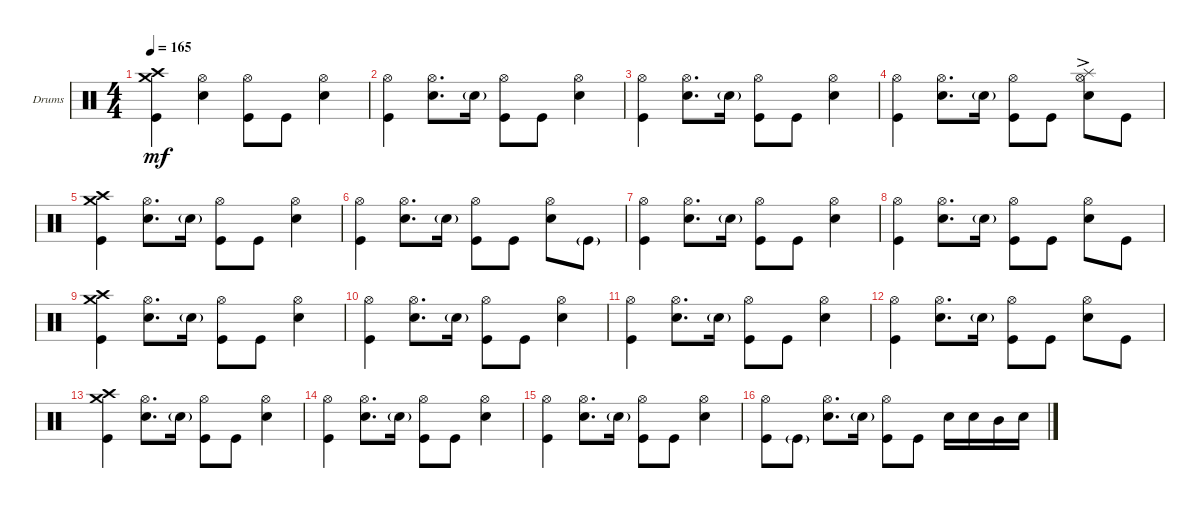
\defaultSystemsLayout 4
\bracketExtendMode groupsimilarinstruments
\firstSystemTrackNameOrientation horizontal
\otherSystemsTrackNameOrientation horizontal
\track ("Drumkit" "Drums") {instrument percussion}
\staff {score}
\articulation defaults
\ts (4 4)
\tempo 165
\clef neutral
\ks c
("Kick (hit)" "Crash high (hit)" "Crash medium (hit)").4{dy mf} ("Snare (hit) 2" "Hi-Hat (open)").4 ("Kick (hit)" "Hi-Hat (open)").8 "Kick (hit)".8 ("Snare (hit) 2" "Hi-Hat (open)").4 |
("Kick (hit)" "Hi-Hat (open)").4 ("Snare (hit) 2" "Hi-Hat (open)").8{d} "Snare (hit) 2"{g}.16 ("Kick (hit)" "Hi-Hat (open)").8 "Kick (hit)".8 ("Snare (hit) 2" "Hi-Hat (open)").4 |
("Kick (hit)" "Hi-Hat (open)").4 ("Snare (hit) 2" "Hi-Hat (open)").8{d} "Snare (hit) 2"{g}.16 ("Kick (hit)" "Hi-Hat (open)").8 "Kick (hit)".8 ("Snare (hit) 2" "Hi-Hat (open)").4 |
("Kick (hit)" "Hi-Hat (open)").4 ("Snare (hit) 2" "Hi-Hat (open)").8{d} "Snare (hit) 2"{g}.16 ("Kick (hit)" "Hi-Hat (open)").8 "Kick (hit)".8 ("Snare (hit) 2" "Hi-Hat (open)"{ac} "Splash (hit)").8 "Kick (hit)".8 |
("Kick (hit)" "Crash high (hit)" "Crash medium (hit)").4 ("Snare (hit) 2" "Hi-Hat (open)").8{d} "Snare (hit) 2"{g}.16 ("Kick (hit)" "Hi-Hat (open)").8 "Kick (hit)".8 ("Snare (hit) 2" "Hi-Hat (open)").4 |
("Kick (hit)" "Hi-Hat (open)").4 ("Snare (hit) 2" "Hi-Hat (open)").8{d} "Snare (hit) 2"{g}.16 ("Kick (hit)" "Hi-Hat (open)").8 "Kick (hit)".8 ("Snare (hit) 2" "Hi-Hat (open)").8 "Kick (hit)"{g}.8 |
("Kick (hit)" "Hi-Hat (open)").4 ("Snare (hit) 2" "Hi-Hat (open)").8{d} "Snare (hit) 2"{g}.16 ("Kick (hit)" "Hi-Hat (open)").8 "Kick (hit)".8 ("Snare (hit) 2" "Hi-Hat (open)").4 |
("Kick (hit)" "Hi-Hat (open)").4 ("Snare (hit) 2" "Hi-Hat (open)").8{d} "Snare (hit) 2"{g}.16 ("Kick (hit)" "Hi-Hat (open)").8 "Kick (hit)".8 ("Snare (hit) 2" "Hi-Hat (open)").8 "Kick (hit)".8 |
("Kick (hit)" "Crash high (hit)" "Crash medium (hit)").4 ("Snare (hit) 2" "Hi-Hat (open)").8{d} "Snare (hit) 2"{g}.16 ("Kick (hit)" "Hi-Hat (open)").8 "Kick (hit)".8 ("Snare (hit) 2" "Hi-Hat (open)").4 |
("Kick (hit)" "Hi-Hat (open)").4 ("Snare (hit) 2" "Hi-Hat (open)").8{d} "Snare (hit) 2"{g}.16 ("Kick (hit)" "Hi-Hat (open)").8 "Kick (hit)".8 ("Snare (hit) 2" "Hi-Hat (open)").4 |
("Kick (hit)" "Hi-Hat (open)").4 ("Snare (hit) 2" "Hi-Hat (open)").8{d} "Snare (hit) 2"{g}.16 ("Kick (hit)" "Hi-Hat (open)").8 "Kick (hit)".8 ("Snare (hit) 2" "Hi-Hat (open)").4 |
("Kick (hit)" "Hi-Hat (open)").4 ("Snare (hit) 2" "Hi-Hat (open)").8{d} "Snare (hit) 2"{g}.16 ("Kick (hit)" "Hi-Hat (open)").8 "Kick (hit)".8 ("Snare (hit) 2" "Hi-Hat (open)").8 "Kick (hit)".8 |
("Kick (hit)" "Crash high (hit)" "Crash medium (hit)").4 ("Snare (hit) 2" "Hi-Hat (open)").8{d} "Snare (hit) 2"{g}.16 ("Kick (hit)" "Hi-Hat (open)").8 "Kick (hit)".8 ("Snare (hit) 2" "Hi-Hat (open)").4 |
("Kick (hit)" "Hi-Hat (open)").4 ("Snare (hit) 2" "Hi-Hat (open)").8{d} "Snare (hit) 2"{g}.16 ("Kick (hit)" "Hi-Hat (open)").8 "Kick (hit)".8 ("Snare (hit) 2" "Hi-Hat (open)").4 |
("Kick (hit)" "Hi-Hat (open)").4 ("Snare (hit) 2" "Hi-Hat (open)").8{d} "Snare (hit) 2"{g}.16 ("Kick (hit)" "Hi-Hat (open)").8 "Kick (hit)".8 ("Snare (hit) 2" "Hi-Hat (open)").4 |
("Kick (hit)" "Hi-Hat (open)").8 "Kick (hit)"{g}.8 ("Snare (hit) 2" "Hi-Hat (open)").8{d} "Snare (hit) 2"{g}.16 ("Kick (hit)" "Hi-Hat (open)").8 "Kick (hit)".8 "Snare (hit) 2".16 "Snare (hit) 2".16 "Mid Tom (hit)".16 "Snare (hit) 2".16
